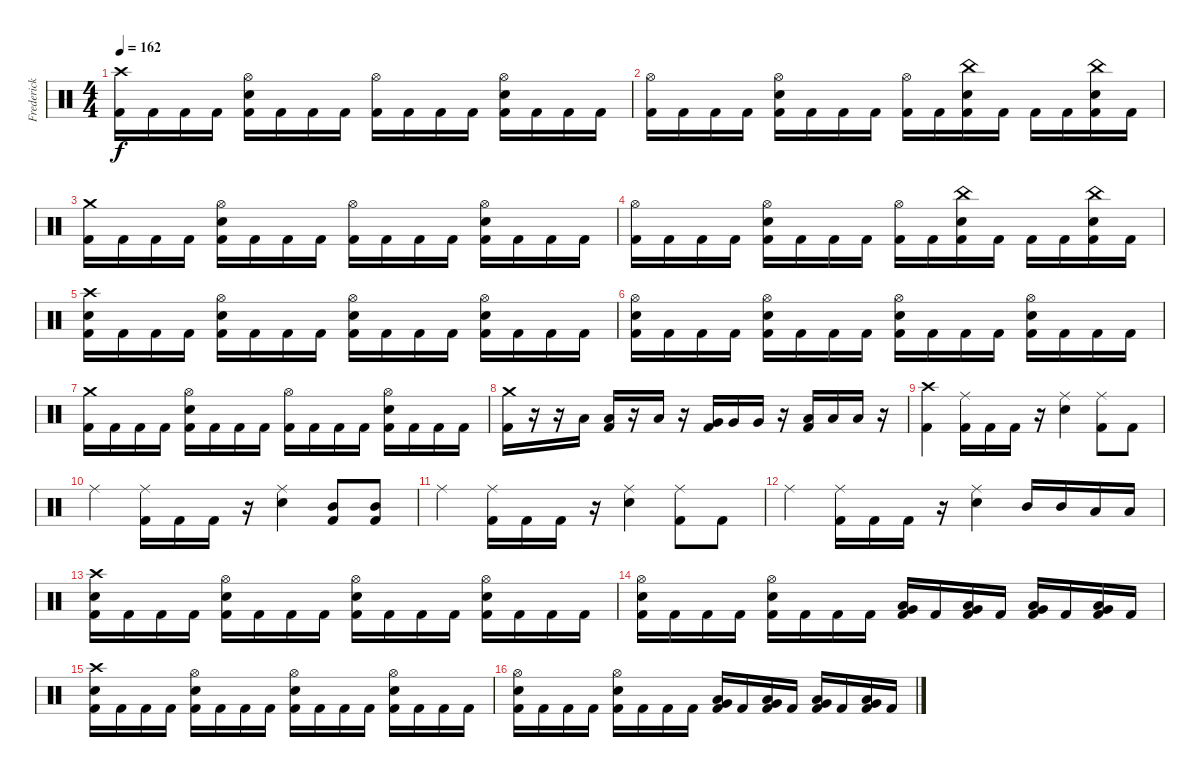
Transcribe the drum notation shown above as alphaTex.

\track ("Frederick Ehmke" "Frederick ") {instrument percussion}
\staff {score}
\articulation defaults
\ts (4 4)
\tempo 162
\clef neutral
\ks c
("Crash high (hit)" "Kick (hit) 2").16{dy f} "Kick (hit) 2".16 "Kick (hit) 2".16 "Kick (hit) 2".16 ("Electric Snare (hit)" "Hi-Hat (open)" "Kick (hit) 2").16 "Kick (hit) 2".16 "Kick (hit) 2".16 "Kick (hit) 2".16 ("Hi-Hat (open)" "Kick (hit) 2").16 "Kick (hit) 2".16 "Kick (hit) 2".16 "Kick (hit) 2".16 ("Electric Snare (hit)" "Hi-Hat (open)" "Kick (hit) 2").16 "Kick (hit) 2".16 "Kick (hit) 2".16 "Kick (hit) 2".16 |
("Hi-Hat (open)" "Kick (hit) 2").16 "Kick (hit) 2".16 "Kick (hit) 2".16 "Kick (hit) 2".16 ("Electric Snare (hit)" "Hi-Hat (open)" "Kick (hit) 2").16 "Kick (hit) 2".16 "Kick (hit) 2".16 "Kick (hit) 2".16 ("Hi-Hat (open)" "Kick (hit) 2").16 "Kick (hit) 2".16 ("Electric Snare (hit)" "China (hit)" "Kick (hit) 2").16 "Kick (hit) 2".16 "Kick (hit) 2".16 "Kick (hit) 2".16 ("Electric Snare (hit)" "China (hit)" "Kick (hit) 2").16 "Kick (hit) 2".16 |
("Crash medium (hit)" "Kick (hit) 2").16 "Kick (hit) 2".16 "Kick (hit) 2".16 "Kick (hit) 2".16 ("Electric Snare (hit)" "Hi-Hat (open)" "Kick (hit) 2").16 "Kick (hit) 2".16 "Kick (hit) 2".16 "Kick (hit) 2".16 ("Hi-Hat (open)" "Kick (hit) 2").16 "Kick (hit) 2".16 "Kick (hit) 2".16 "Kick (hit) 2".16 ("Electric Snare (hit)" "Hi-Hat (open)" "Kick (hit) 2").16 "Kick (hit) 2".16 "Kick (hit) 2".16 "Kick (hit) 2".16 |
("Hi-Hat (open)" "Kick (hit) 2").16 "Kick (hit) 2".16 "Kick (hit) 2".16 "Kick (hit) 2".16 ("Electric Snare (hit)" "Hi-Hat (open)" "Kick (hit) 2").16 "Kick (hit) 2".16 "Kick (hit) 2".16 "Kick (hit) 2".16 ("Hi-Hat (open)" "Kick (hit) 2").16 "Kick (hit) 2".16 ("Electric Snare (hit)" "China (hit)" "Kick (hit) 2").16 "Kick (hit) 2".16 "Kick (hit) 2".16 "Kick (hit) 2".16 ("Electric Snare (hit)" "China (hit)" "Kick (hit) 2").16 "Kick (hit) 2".16 |
("Electric Snare (hit)" "Crash high (hit)" "Kick (hit) 2").16 "Kick (hit) 2".16 "Kick (hit) 2".16 "Kick (hit) 2".16 ("Electric Snare (hit)" "Hi-Hat (open)" "Kick (hit) 2").16 "Kick (hit) 2".16 "Kick (hit) 2".16 "Kick (hit) 2".16 ("Electric Snare (hit)" "Hi-Hat (open)" "Kick (hit) 2").16 "Kick (hit) 2".16 "Kick (hit) 2".16 "Kick (hit) 2".16 ("Electric Snare (hit)" "Hi-Hat (open)" "Kick (hit) 2").16 "Kick (hit) 2".16 "Kick (hit) 2".16 "Kick (hit) 2".16 |
("Electric Snare (hit)" "Hi-Hat (open)" "Kick (hit) 2").16 "Kick (hit) 2".16 "Kick (hit) 2".16 "Kick (hit) 2".16 ("Electric Snare (hit)" "Hi-Hat (open)" "Kick (hit) 2").16 "Kick (hit) 2".16 "Kick (hit) 2".16 "Kick (hit) 2".16 ("Electric Snare (hit)" "Hi-Hat (open)" "Kick (hit) 2").16 "Kick (hit) 2".16 "Kick (hit) 2".16 "Kick (hit) 2".16 ("Electric Snare (hit)" "Hi-Hat (open)" "Kick (hit) 2").16 "Kick (hit) 2".16 "Kick (hit) 2".16 "Kick (hit) 2".16 |
("Crash medium (hit)" "Kick (hit) 2").16 "Kick (hit) 2".16 "Kick (hit) 2".16 "Kick (hit) 2".16 ("Electric Snare (hit)" "Hi-Hat (open)" "Kick (hit) 2").16 "Kick (hit) 2".16 "Kick (hit) 2".16 "Kick (hit) 2".16 ("Hi-Hat (open)" "Kick (hit) 2").16 "Kick (hit) 2".16 "Kick (hit) 2".16 "Kick (hit) 2".16 ("Electric Snare (hit)" "Hi-Hat (open)" "Kick (hit) 2").16 "Kick (hit) 2".16 "Kick (hit) 2".16 "Kick (hit) 2".16 |
("Crash medium (hit)" "Kick (hit) 2").16 r.16 r.16 "Low Tom (hit)".16 ("Low Tom (hit)" "Kick (hit) 2").16 r.16 "Low Tom (hit)".16 r.16 ("Very Low Tom (hit)" "Kick (hit) 2").16 "Very Low Tom (hit)".16 "Very Low Tom (hit)".16 r.16 ("Low Floor Tom (hit)" "Kick (hit) 2").16 "Low Floor Tom (hit)".16 "Low Floor Tom (hit)".16 r.16 |
("Crash high (hit)" "Kick (hit) 2").4 ("Ride (middle)" "Kick (hit) 2").16 "Kick (hit) 2".16 "Kick (hit) 2".16 r.16 ("Electric Snare (hit)" "Ride (middle)").4 ("Ride (middle)" "Kick (hit) 2").8 "Kick (hit) 2".8 |
"Ride (middle)".4 ("Ride (middle)" "Kick (hit) 2").16 "Kick (hit) 2".16 "Kick (hit) 2".16 r.16 ("Electric Snare (hit)" "Ride (middle)").4 ("Mid Tom (hit)" "Kick (hit) 2").8 ("Mid Tom (hit)" "Kick (hit) 2").8 |
"Ride (middle)".4 ("Ride (middle)" "Kick (hit) 2").16 "Kick (hit) 2".16 "Kick (hit) 2".16 r.16 ("Electric Snare (hit)" "Ride (middle)").4 ("Ride (middle)" "Kick (hit) 2").8 "Kick (hit) 2".8 |
"Ride (middle)".4 ("Ride (middle)" "Kick (hit) 2").16 "Kick (hit) 2".16 "Kick (hit) 2".16 r.16 ("Electric Snare (hit)" "Ride (middle)").4 "Mid Tom (hit)".16 "Mid Tom (hit)".16 "Low Tom (hit)".16 "Low Tom (hit)".16 |
("Electric Snare (hit)" "Crash high (hit)" "Kick (hit) 2").16 "Kick (hit) 2".16 "Kick (hit) 2".16 "Kick (hit) 2".16 ("Electric Snare (hit)" "Hi-Hat (open)" "Kick (hit) 2").16 "Kick (hit) 2".16 "Kick (hit) 2".16 "Kick (hit) 2".16 ("Electric Snare (hit)" "Hi-Hat (open)" "Kick (hit) 2").16 "Kick (hit) 2".16 "Kick (hit) 2".16 "Kick (hit) 2".16 ("Electric Snare (hit)" "Hi-Hat (open)" "Kick (hit) 2").16 "Kick (hit) 2".16 "Kick (hit) 2".16 "Kick (hit) 2".16 |
("Electric Snare (hit)" "Hi-Hat (open)" "Kick (hit) 2").16 "Kick (hit) 2".16 "Kick (hit) 2".16 "Kick (hit) 2".16 ("Electric Snare (hit)" "Hi-Hat (open)" "Kick (hit) 2").16 "Kick (hit) 2".16 "Kick (hit) 2".16 "Kick (hit) 2".16 ("Low Tom (hit)" "Very Low Tom (hit)" "Kick (hit) 2").16 "Kick (hit) 2".16 ("Low Tom (hit)" "Very Low Tom (hit)" "Kick (hit) 2").16 "Kick (hit) 2".16 ("Very Low Tom (hit)" "Low Floor Tom (hit)" "Kick (hit) 2").16 "Kick (hit) 2".16 ("Very Low Tom (hit)" "Low Floor Tom (hit)" "Kick (hit) 2").16 "Kick (hit) 2".16 |
("Electric Snare (hit)" "Crash high (hit)" "Kick (hit) 2").16 "Kick (hit) 2".16 "Kick (hit) 2".16 "Kick (hit) 2".16 ("Electric Snare (hit)" "Hi-Hat (open)" "Kick (hit) 2").16 "Kick (hit) 2".16 "Kick (hit) 2".16 "Kick (hit) 2".16 ("Electric Snare (hit)" "Hi-Hat (open)" "Kick (hit) 2").16 "Kick (hit) 2".16 "Kick (hit) 2".16 "Kick (hit) 2".16 ("Electric Snare (hit)" "Hi-Hat (open)" "Kick (hit) 2").16 "Kick (hit) 2".16 "Kick (hit) 2".16 "Kick (hit) 2".16 |
("Electric Snare (hit)" "Hi-Hat (open)" "Kick (hit) 2").16 "Kick (hit) 2".16 "Kick (hit) 2".16 "Kick (hit) 2".16 ("Electric Snare (hit)" "Hi-Hat (open)" "Kick (hit) 2").16 "Kick (hit) 2".16 "Kick (hit) 2".16 "Kick (hit) 2".16 ("Low Tom (hit)" "Very Low Tom (hit)" "Kick (hit) 2").16 "Kick (hit) 2".16 ("Low Tom (hit)" "Very Low Tom (hit)" "Kick (hit) 2").16 "Kick (hit) 2".16 ("Very Low Tom (hit)" "Low Floor Tom (hit)" "Kick (hit) 2").16 "Kick (hit) 2".16 ("Very Low Tom (hit)" "Low Floor Tom (hit)" "Kick (hit) 2").16 "Kick (hit) 2".16
